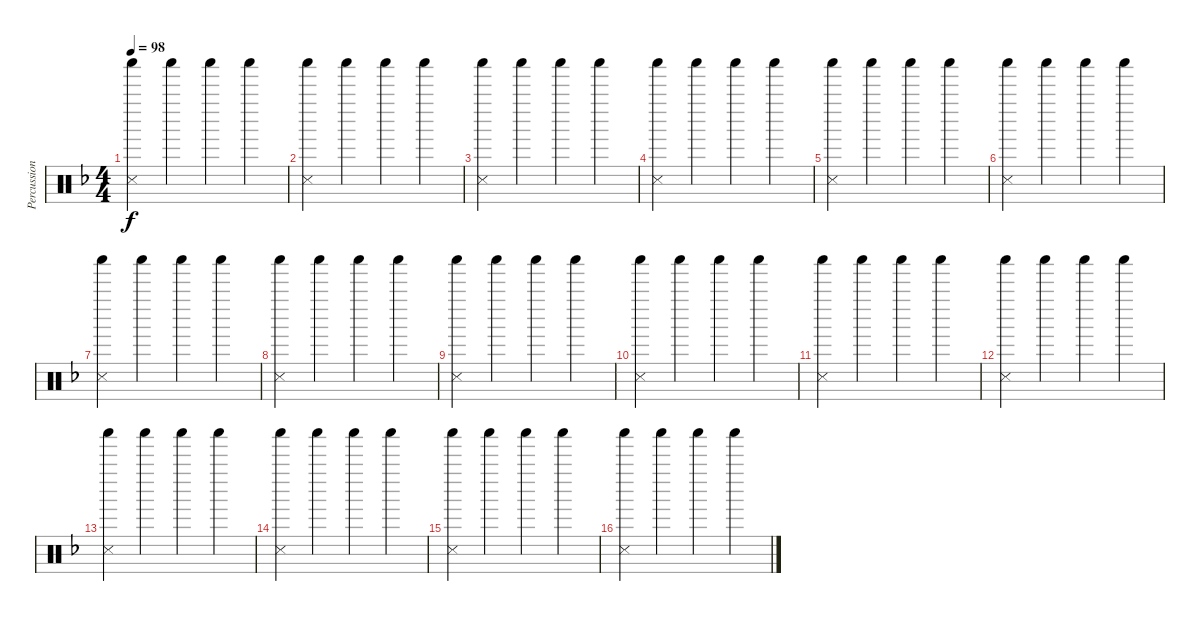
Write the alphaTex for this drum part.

\track ("Percussion" "Percussion") {instrument percussion}
\staff {score}
\articulation defaults
\ts (4 4)
\tempo 98
\clef neutral
\ks dminor
("Shaker (hit)" "Snare (side stick) 3").4{dy f} "Shaker (hit)".4 "Shaker (hit)".4 "Shaker (hit)".4 |
("Shaker (hit)" "Snare (side stick) 3").4 "Shaker (hit)".4 "Shaker (hit)".4 "Shaker (hit)".4 |
("Shaker (hit)" "Snare (side stick) 3").4 "Shaker (hit)".4 "Shaker (hit)".4 "Shaker (hit)".4 |
("Shaker (hit)" "Snare (side stick) 3").4 "Shaker (hit)".4 "Shaker (hit)".4 "Shaker (hit)".4 |
("Shaker (hit)" "Snare (side stick) 3").4 "Shaker (hit)".4 "Shaker (hit)".4 "Shaker (hit)".4 |
("Shaker (hit)" "Snare (side stick) 3").4 "Shaker (hit)".4 "Shaker (hit)".4 "Shaker (hit)".4 |
("Shaker (hit)" "Snare (side stick) 3").4 "Shaker (hit)".4 "Shaker (hit)".4 "Shaker (hit)".4 |
("Shaker (hit)" "Snare (side stick) 3").4 "Shaker (hit)".4 "Shaker (hit)".4 "Shaker (hit)".4 |
("Shaker (hit)" "Snare (side stick) 3").4 "Shaker (hit)".4 "Shaker (hit)".4 "Shaker (hit)".4 |
("Shaker (hit)" "Snare (side stick) 3").4 "Shaker (hit)".4 "Shaker (hit)".4 "Shaker (hit)".4 |
("Shaker (hit)" "Snare (side stick) 3").4 "Shaker (hit)".4 "Shaker (hit)".4 "Shaker (hit)".4 |
("Shaker (hit)" "Snare (side stick) 3").4 "Shaker (hit)".4 "Shaker (hit)".4 "Shaker (hit)".4 |
("Shaker (hit)" "Snare (side stick) 3").4 "Shaker (hit)".4 "Shaker (hit)".4 "Shaker (hit)".4 |
("Shaker (hit)" "Snare (side stick) 3").4 "Shaker (hit)".4 "Shaker (hit)".4 "Shaker (hit)".4 |
("Shaker (hit)" "Snare (side stick) 3").4 "Shaker (hit)".4 "Shaker (hit)".4 "Shaker (hit)".4 |
("Shaker (hit)" "Snare (side stick) 3").4 "Shaker (hit)".4 "Shaker (hit)".4 "Shaker (hit)".4
